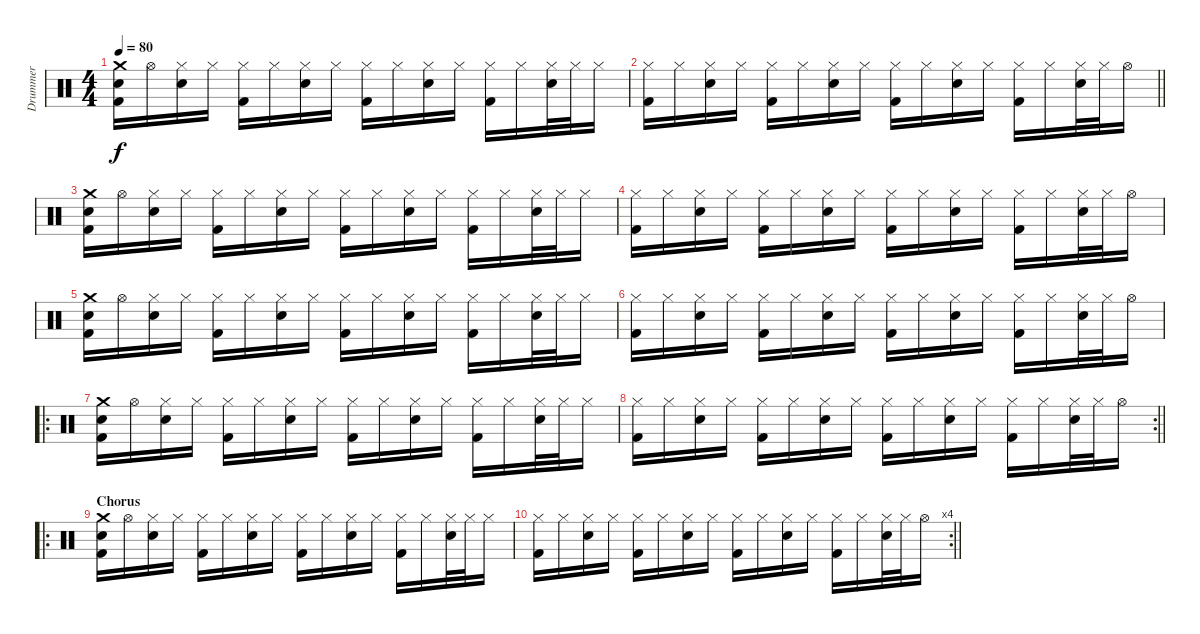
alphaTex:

\track ("Drummer" "Drummer") {instrument percussion}
\staff {score}
\articulation defaults
\ts (4 4)
\tempo 80
\clef neutral
\ks c
("Kick (hit) 2" "Electric Snare (hit)" "Crash medium (hit)").16{dy f} "Hi-Hat (open)".16 ("Electric Snare (hit)" "Hi-Hat (closed)").16 "Hi-Hat (closed)".16 ("Kick (hit) 2" "Hi-Hat (closed)").16 "Hi-Hat (closed)".16 ("Electric Snare (hit)" "Hi-Hat (closed)").16 "Hi-Hat (closed)".16 ("Kick (hit) 2" "Hi-Hat (closed)").16 "Hi-Hat (closed)".16 ("Electric Snare (hit)" "Hi-Hat (closed)").16 "Hi-Hat (closed)".16 ("Kick (hit) 2" "Hi-Hat (closed)").16 "Hi-Hat (closed)".16 ("Electric Snare (hit)" "Hi-Hat (closed)").32 "Hi-Hat (closed)".32 "Hi-Hat (closed)".16 |
\barLineRight lightlight
("Kick (hit) 2" "Hi-Hat (closed)").16 "Hi-Hat (closed)".16 ("Electric Snare (hit)" "Hi-Hat (closed)").16 "Hi-Hat (closed)".16 ("Kick (hit) 2" "Hi-Hat (closed)").16 "Hi-Hat (closed)".16 ("Electric Snare (hit)" "Hi-Hat (closed)").16 "Hi-Hat (closed)".16 ("Kick (hit) 2" "Hi-Hat (closed)").16 "Hi-Hat (closed)".16 ("Electric Snare (hit)" "Hi-Hat (closed)").16 "Hi-Hat (closed)".16 ("Kick (hit) 2" "Hi-Hat (closed)").16 "Hi-Hat (closed)".16 ("Electric Snare (hit)" "Hi-Hat (closed)").32 "Hi-Hat (closed)".32 "Hi-Hat (open)".16 |
("Kick (hit) 2" "Electric Snare (hit)" "Crash medium (hit)").16 "Hi-Hat (open)".16 ("Electric Snare (hit)" "Hi-Hat (closed)").16 "Hi-Hat (closed)".16 ("Kick (hit) 2" "Hi-Hat (closed)").16 "Hi-Hat (closed)".16 ("Electric Snare (hit)" "Hi-Hat (closed)").16 "Hi-Hat (closed)".16 ("Kick (hit) 2" "Hi-Hat (closed)").16 "Hi-Hat (closed)".16 ("Electric Snare (hit)" "Hi-Hat (closed)").16 "Hi-Hat (closed)".16 ("Kick (hit) 2" "Hi-Hat (closed)").16 "Hi-Hat (closed)".16 ("Electric Snare (hit)" "Hi-Hat (closed)").32 "Hi-Hat (closed)".32 "Hi-Hat (closed)".16 |
("Kick (hit) 2" "Hi-Hat (closed)").16 "Hi-Hat (closed)".16 ("Electric Snare (hit)" "Hi-Hat (closed)").16 "Hi-Hat (closed)".16 ("Kick (hit) 2" "Hi-Hat (closed)").16 "Hi-Hat (closed)".16 ("Electric Snare (hit)" "Hi-Hat (closed)").16 "Hi-Hat (closed)".16 ("Kick (hit) 2" "Hi-Hat (closed)").16 "Hi-Hat (closed)".16 ("Electric Snare (hit)" "Hi-Hat (closed)").16 "Hi-Hat (closed)".16 ("Kick (hit) 2" "Hi-Hat (closed)").16 "Hi-Hat (closed)".16 ("Electric Snare (hit)" "Hi-Hat (closed)").32 "Hi-Hat (closed)".32 "Hi-Hat (open)".16 |
("Kick (hit) 2" "Electric Snare (hit)" "Crash medium (hit)").16 "Hi-Hat (open)".16 ("Electric Snare (hit)" "Hi-Hat (closed)").16 "Hi-Hat (closed)".16 ("Kick (hit) 2" "Hi-Hat (closed)").16 "Hi-Hat (closed)".16 ("Electric Snare (hit)" "Hi-Hat (closed)").16 "Hi-Hat (closed)".16 ("Kick (hit) 2" "Hi-Hat (closed)").16 "Hi-Hat (closed)".16 ("Electric Snare (hit)" "Hi-Hat (closed)").16 "Hi-Hat (closed)".16 ("Kick (hit) 2" "Hi-Hat (closed)").16 "Hi-Hat (closed)".16 ("Electric Snare (hit)" "Hi-Hat (closed)").32 "Hi-Hat (closed)".32 "Hi-Hat (closed)".16 |
("Kick (hit) 2" "Hi-Hat (closed)").16 "Hi-Hat (closed)".16 ("Electric Snare (hit)" "Hi-Hat (closed)").16 "Hi-Hat (closed)".16 ("Kick (hit) 2" "Hi-Hat (closed)").16 "Hi-Hat (closed)".16 ("Electric Snare (hit)" "Hi-Hat (closed)").16 "Hi-Hat (closed)".16 ("Kick (hit) 2" "Hi-Hat (closed)").16 "Hi-Hat (closed)".16 ("Electric Snare (hit)" "Hi-Hat (closed)").16 "Hi-Hat (closed)".16 ("Kick (hit) 2" "Hi-Hat (closed)").16 "Hi-Hat (closed)".16 ("Electric Snare (hit)" "Hi-Hat (closed)").32 "Hi-Hat (closed)".32 "Hi-Hat (open)".16 |
\ro
("Kick (hit) 2" "Electric Snare (hit)" "Crash medium (hit)").16 "Hi-Hat (open)".16 ("Electric Snare (hit)" "Hi-Hat (closed)").16 "Hi-Hat (closed)".16 ("Kick (hit) 2" "Hi-Hat (closed)").16 "Hi-Hat (closed)".16 ("Electric Snare (hit)" "Hi-Hat (closed)").16 "Hi-Hat (closed)".16 ("Kick (hit) 2" "Hi-Hat (closed)").16 "Hi-Hat (closed)".16 ("Electric Snare (hit)" "Hi-Hat (closed)").16 "Hi-Hat (closed)".16 ("Kick (hit) 2" "Hi-Hat (closed)").16 "Hi-Hat (closed)".16 ("Electric Snare (hit)" "Hi-Hat (closed)").32 "Hi-Hat (closed)".32 "Hi-Hat (closed)".16 |
\rc 2
\barLineRight lightlight
("Kick (hit) 2" "Hi-Hat (closed)").16 "Hi-Hat (closed)".16 ("Electric Snare (hit)" "Hi-Hat (closed)").16 "Hi-Hat (closed)".16 ("Kick (hit) 2" "Hi-Hat (closed)").16 "Hi-Hat (closed)".16 ("Electric Snare (hit)" "Hi-Hat (closed)").16 "Hi-Hat (closed)".16 ("Kick (hit) 2" "Hi-Hat (closed)").16 "Hi-Hat (closed)".16 ("Electric Snare (hit)" "Hi-Hat (closed)").16 "Hi-Hat (closed)".16 ("Kick (hit) 2" "Hi-Hat (closed)").16 "Hi-Hat (closed)".16 ("Electric Snare (hit)" "Hi-Hat (closed)").32 "Hi-Hat (closed)".32 "Hi-Hat (open)".16 |
\ro
\section ("" "Chorus")
("Kick (hit) 2" "Electric Snare (hit)" "Crash medium (hit)").16 "Hi-Hat (open)".16 ("Electric Snare (hit)" "Hi-Hat (closed)").16 "Hi-Hat (closed)".16 ("Kick (hit) 2" "Hi-Hat (closed)").16 "Hi-Hat (closed)".16 ("Electric Snare (hit)" "Hi-Hat (closed)").16 "Hi-Hat (closed)".16 ("Kick (hit) 2" "Hi-Hat (closed)").16 "Hi-Hat (closed)".16 ("Electric Snare (hit)" "Hi-Hat (closed)").16 "Hi-Hat (closed)".16 ("Kick (hit) 2" "Hi-Hat (closed)").16 "Hi-Hat (closed)".16 ("Electric Snare (hit)" "Hi-Hat (closed)").32 "Hi-Hat (closed)".32 "Hi-Hat (closed)".16 |
\rc 4
\barLineRight lightlight
("Kick (hit) 2" "Hi-Hat (closed)").16 "Hi-Hat (closed)".16 ("Electric Snare (hit)" "Hi-Hat (closed)").16 "Hi-Hat (closed)".16 ("Kick (hit) 2" "Hi-Hat (closed)").16 "Hi-Hat (closed)".16 ("Electric Snare (hit)" "Hi-Hat (closed)").16 "Hi-Hat (closed)".16 ("Kick (hit) 2" "Hi-Hat (closed)").16 "Hi-Hat (closed)".16 ("Electric Snare (hit)" "Hi-Hat (closed)").16 "Hi-Hat (closed)".16 ("Kick (hit) 2" "Hi-Hat (closed)").16 "Hi-Hat (closed)".16 ("Electric Snare (hit)" "Hi-Hat (closed)").32 "Hi-Hat (closed)".32 "Hi-Hat (open)".16
